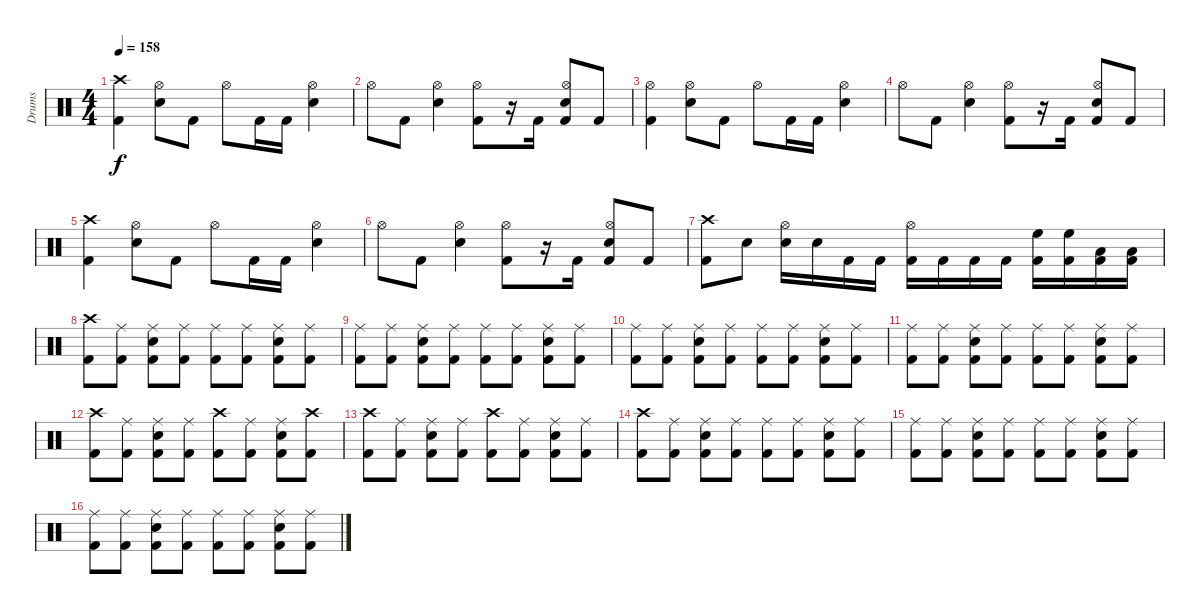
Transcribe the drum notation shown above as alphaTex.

\track ("Drums" "Drums") {instrument percussion}
\staff {score}
\articulation defaults
\ts (4 4)
\tempo 158
\clef neutral
\ks c
("Crash high (hit)" "Kick (hit) 2").4{dy f} ("Hi-Hat (open)" "Snare (hit) 2").8 "Kick (hit) 2".8 "Hi-Hat (open)".8 "Kick (hit) 2".16 "Kick (hit) 2".16 ("Hi-Hat (open)" "Snare (hit) 2").4 |
"Hi-Hat (open)".8 "Kick (hit) 2".8 ("Hi-Hat (open)" "Snare (hit) 2").4 ("Hi-Hat (open)" "Kick (hit) 2").8 r.16 "Kick (hit) 2".16 ("Hi-Hat (open)" "Snare (hit) 2" "Kick (hit) 2").8 "Kick (hit) 2".8 |
("Hi-Hat (open)" "Kick (hit) 2").4 ("Hi-Hat (open)" "Snare (hit) 2").8 "Kick (hit) 2".8 "Hi-Hat (open)".8 "Kick (hit) 2".16 "Kick (hit) 2".16 ("Hi-Hat (open)" "Snare (hit) 2").4 |
"Hi-Hat (open)".8 "Kick (hit) 2".8 ("Hi-Hat (open)" "Snare (hit) 2").4 ("Hi-Hat (open)" "Kick (hit) 2").8 r.16 "Kick (hit) 2".16 ("Hi-Hat (open)" "Snare (hit) 2" "Kick (hit) 2").8 "Kick (hit) 2".8 |
("Crash high (hit)" "Kick (hit) 2").4 ("Hi-Hat (open)" "Snare (hit) 2").8 "Kick (hit) 2".8 "Hi-Hat (open)".8 "Kick (hit) 2".16 "Kick (hit) 2".16 ("Hi-Hat (open)" "Snare (hit) 2").4 |
"Hi-Hat (open)".8 "Kick (hit) 2".8 ("Hi-Hat (open)" "Snare (hit) 2").4 ("Hi-Hat (open)" "Kick (hit) 2").8 r.16 "Kick (hit) 2".16 ("Hi-Hat (open)" "Snare (hit) 2" "Kick (hit) 2").8 "Kick (hit) 2".8 |
("Crash high (hit)" "Kick (hit) 2").8 "Snare (hit) 2".8 ("Hi-Hat (open)" "Snare (hit) 2").16 "Snare (hit) 2".16 "Kick (hit) 2".16 "Kick (hit) 2".16 ("Hi-Hat (open)" "Kick (hit) 2").16 "Kick (hit) 2".16 "Kick (hit) 2".16 "Kick (hit) 2".16 ("High Floor Tom (hit)" "Kick (hit) 2").16 ("High Floor Tom (hit)" "Kick (hit) 2").16 ("Low Tom (hit)" "Kick (hit) 2").16 ("Low Tom (hit)" "Kick (hit) 2").16 |
("Crash high (hit)" "Kick (hit) 2").8 ("Ride (middle)" "Kick (hit) 2").8 ("Ride (middle)" "Snare (hit) 2" "Kick (hit) 2").8 ("Ride (middle)" "Kick (hit) 2").8 ("Ride (middle)" "Kick (hit) 2").8 ("Ride (middle)" "Kick (hit) 2").8 ("Ride (middle)" "Snare (hit) 2" "Kick (hit) 2").8 ("Ride (middle)" "Kick (hit) 2").8 |
("Ride (middle)" "Kick (hit) 2").8 ("Ride (middle)" "Kick (hit) 2").8 ("Ride (middle)" "Snare (hit) 2" "Kick (hit) 2").8 ("Ride (middle)" "Kick (hit) 2").8 ("Ride (middle)" "Kick (hit) 2").8 ("Ride (middle)" "Kick (hit) 2").8 ("Ride (middle)" "Snare (hit) 2" "Kick (hit) 2").8 ("Ride (middle)" "Kick (hit) 2").8 |
("Ride (middle)" "Kick (hit) 2").8 ("Ride (middle)" "Kick (hit) 2").8 ("Ride (middle)" "Snare (hit) 2" "Kick (hit) 2").8 ("Ride (middle)" "Kick (hit) 2").8 ("Ride (middle)" "Kick (hit) 2").8 ("Ride (middle)" "Kick (hit) 2").8 ("Ride (middle)" "Snare (hit) 2" "Kick (hit) 2").8 ("Ride (middle)" "Kick (hit) 2").8 |
("Ride (middle)" "Kick (hit) 2").8 ("Ride (middle)" "Kick (hit) 2").8 ("Ride (middle)" "Snare (hit) 2" "Kick (hit) 2").8 ("Ride (middle)" "Kick (hit) 2").8 ("Ride (middle)" "Kick (hit) 2").8 ("Ride (middle)" "Kick (hit) 2").8 ("Ride (middle)" "Snare (hit) 2" "Kick (hit) 2").8 ("Ride (middle)" "Kick (hit) 2").8 |
("Crash high (hit)" "Kick (hit) 2").8 ("Ride (middle)" "Kick (hit) 2").8 ("Ride (middle)" "Snare (hit) 2" "Kick (hit) 2").8 ("Ride (middle)" "Kick (hit) 2").8 ("Crash high (hit)" "Kick (hit) 2").8 ("Ride (middle)" "Kick (hit) 2").8 ("Ride (middle)" "Snare (hit) 2" "Kick (hit) 2").8 ("Crash high (hit)" "Kick (hit) 2").8 |
("Crash high (hit)" "Kick (hit) 2").8 ("Ride (middle)" "Kick (hit) 2").8 ("Ride (middle)" "Snare (hit) 2" "Kick (hit) 2").8 ("Ride (middle)" "Kick (hit) 2").8 ("Crash high (hit)" "Kick (hit) 2").8 ("Ride (middle)" "Kick (hit) 2").8 ("Ride (middle)" "Snare (hit) 2" "Kick (hit) 2").8 ("Ride (middle)" "Kick (hit) 2").8 |
("Crash high (hit)" "Kick (hit) 2").8 ("Ride (middle)" "Kick (hit) 2").8 ("Ride (middle)" "Snare (hit) 2" "Kick (hit) 2").8 ("Ride (middle)" "Kick (hit) 2").8 ("Ride (middle)" "Kick (hit) 2").8 ("Ride (middle)" "Kick (hit) 2").8 ("Ride (middle)" "Snare (hit) 2" "Kick (hit) 2").8 ("Ride (middle)" "Kick (hit) 2").8 |
("Ride (middle)" "Kick (hit) 2").8 ("Ride (middle)" "Kick (hit) 2").8 ("Ride (middle)" "Snare (hit) 2" "Kick (hit) 2").8 ("Ride (middle)" "Kick (hit) 2").8 ("Ride (middle)" "Kick (hit) 2").8 ("Ride (middle)" "Kick (hit) 2").8 ("Ride (middle)" "Snare (hit) 2" "Kick (hit) 2").8 ("Ride (middle)" "Kick (hit) 2").8 |
("Ride (middle)" "Kick (hit) 2").8 ("Ride (middle)" "Kick (hit) 2").8 ("Ride (middle)" "Snare (hit) 2" "Kick (hit) 2").8 ("Ride (middle)" "Kick (hit) 2").8 ("Ride (middle)" "Kick (hit) 2").8 ("Ride (middle)" "Kick (hit) 2").8 ("Ride (middle)" "Snare (hit) 2" "Kick (hit) 2").8 ("Ride (middle)" "Kick (hit) 2").8
